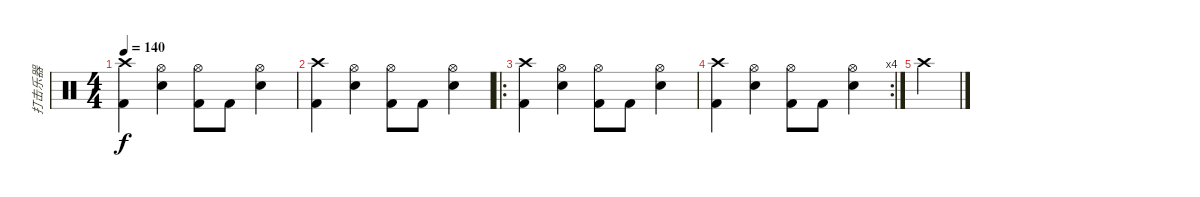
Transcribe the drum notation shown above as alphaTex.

\track ("打击乐器" "打击乐器") {instrument percussion}
\staff {score}
\articulation defaults
\ts (4 4)
\tempo 140
\clef neutral
\ks c
("Crash high (hit)" "Kick (hit) 2").4{dy f} ("Hi-Hat (open)" "Snare (hit) 2").4 ("Hi-Hat (open)" "Kick (hit) 2").8 "Kick (hit) 2".8 ("Hi-Hat (open)" "Snare (hit) 2").4 |
("Crash high (hit)" "Kick (hit) 2").4 ("Hi-Hat (open)" "Snare (hit) 2").4 ("Hi-Hat (open)" "Kick (hit) 2").8 "Kick (hit) 2".8 ("Hi-Hat (open)" "Snare (hit) 2").4 |
\ro
("Crash high (hit)" "Kick (hit) 2").4 ("Hi-Hat (open)" "Snare (hit) 2").4 ("Hi-Hat (open)" "Kick (hit) 2").8 "Kick (hit) 2".8 ("Hi-Hat (open)" "Snare (hit) 2").4 |
\rc 4
("Crash high (hit)" "Kick (hit) 2").4 ("Hi-Hat (open)" "Snare (hit) 2").4 ("Hi-Hat (open)" "Kick (hit) 2").8 "Kick (hit) 2".8 ("Hi-Hat (open)" "Snare (hit) 2").4 |
"Crash high (hit)".4
